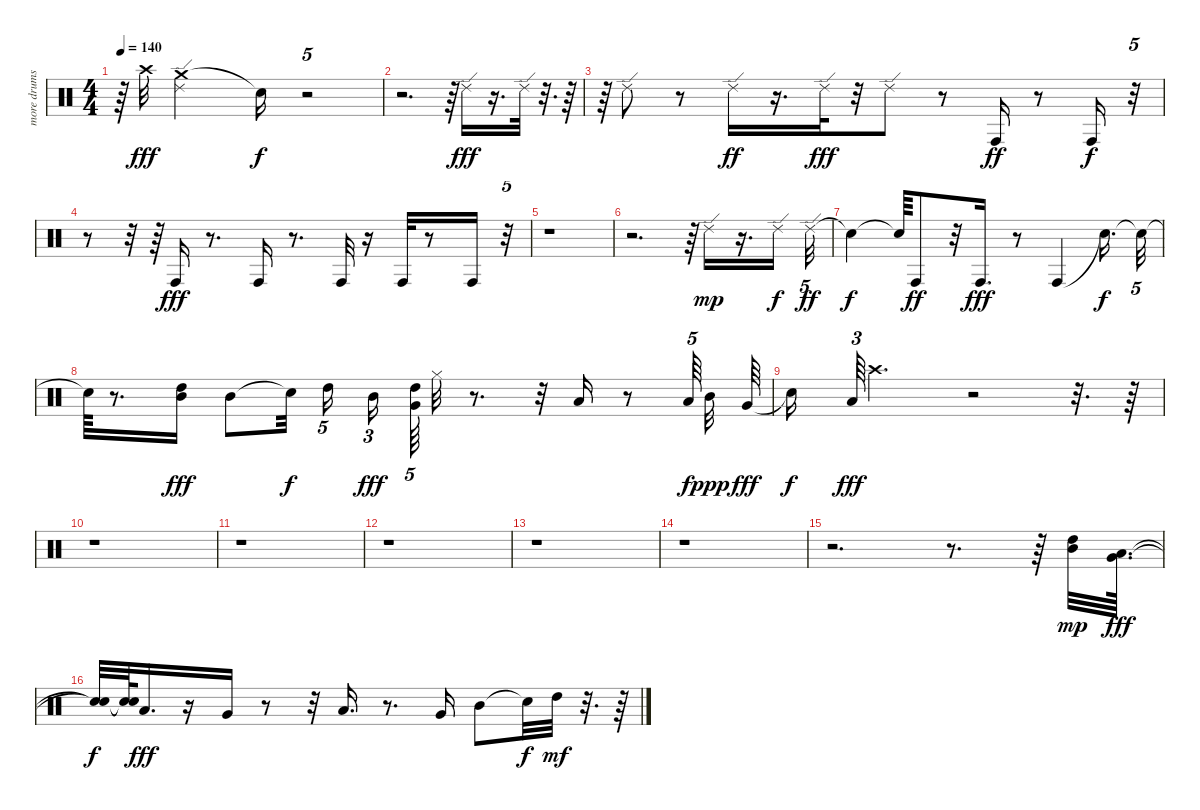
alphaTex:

\track ("more drums" "more drums") {instrument percussion}
\staff {score}
\articulation defaults
\ts (4 4)
\tempo 140
\clef neutral
\ks c
r.64{dy fff} "Crash high (hit)".32 ("Crash medium (hit)" "Ride (edge) 2").2 "Snare (hit)"{t}.16{dy f} r.2{tu (5 4)} |
r.2{d} r.64 "Ride (edge) 2".16{dy fff} r.16{d} "Ride (edge) 2".32 r.32{d} r.64 |
r.64 "Ride (edge) 2".8 r.8 "Ride (edge) 2".16{dy ff} r.16{d} "Ride (edge) 2".32{dy fff} r.32 "Ride (edge) 2".8 r.8 "Conga high (hit)".16{dy ff} r.8 "Conga high (hit)".16{dy f} r.32{tu (5 4)} |
r.8 r.32 r.64 "Conga high (hit)".16{dy fff} r.8{d} "Conga high (hit)".16 r.8{d} "Conga high (hit)".32 r.16 "Conga high (hit)".32 r.8 "Conga high (hit)".16 r.32{tu (5 4)} |
r.1 |
r.2{d} r.64 "Ride (edge) 2".16{dy mp} r.16{d} "Ride (edge) 2".16{dy f} "Ride (edge) 2".32{tu (5 4) dy ff} |
"Snare (hit)"{t}.4{dy f} "Snare (hit)"{t}.64 "Conga high (hit)".8{dy ff} r.32 "Conga high (hit)".16{d dy fff} r.8 "Conga high (hit)".4 "Snare (hit)"{t}.16{d dy f} "Snare (hit)"{t}.32{tu (5 4)} |
"Snare (hit)"{t}.64 r.8{d} ("High Tom (hit)" "Mid Tom (hit)").16{dy fff} "Mid Tom (hit)".8 "Snare (hit)"{t}.32{dy f beam splitsecondary} "High Tom (hit)".16{tu (5 4)} "Mid Tom (hit)".16{tu (3 2) dy fff} ("High Tom (hit)" "Very Low Tom (hit)").64{tu (5 4)} "Hi-Hat (closed)".32 r.8{d} r.32 "Low Tom (hit)".16 r.8 "Low Tom (hit)".64{tu (5 4) dy f} "Mid Tom (hit)".32{dy ppp} "Very Low Tom (hit)".64{dy fff} |
"Snare (hit)"{t}.16{dy f} "Low Tom (hit)".64{tu (3 2) dy fff} "Crash high (hit)".4{d} r.2 r.32{d} r.64 |
r.1 |
r.1 |
r.1 |
r.1 |
r.1 |
r.2{d} r.8{d} r.64 ("Mid Tom (hit)" "High Tom (hit)").32{dy mp} ("Low Tom (hit)" "Very Low Tom (hit)").64{d dy fff} |
("Snare (hit)"{t} "Snare (hit)"{t}).32{dy f} ("Snare (hit)"{t} "Snare (hit)"{t}).64 "Low Floor Tom (hit)".16{d dy fff} r.16 "Very Low Tom (hit)".16 r.8 r.32 "Low Tom (hit)".16{d} r.8{d} "Very Low Tom (hit)".16 "Mid Tom (hit)".8 "Snare (hit)"{t}.32{dy f} "High Tom (hit)".32{dy mf} r.32{d} r.64
